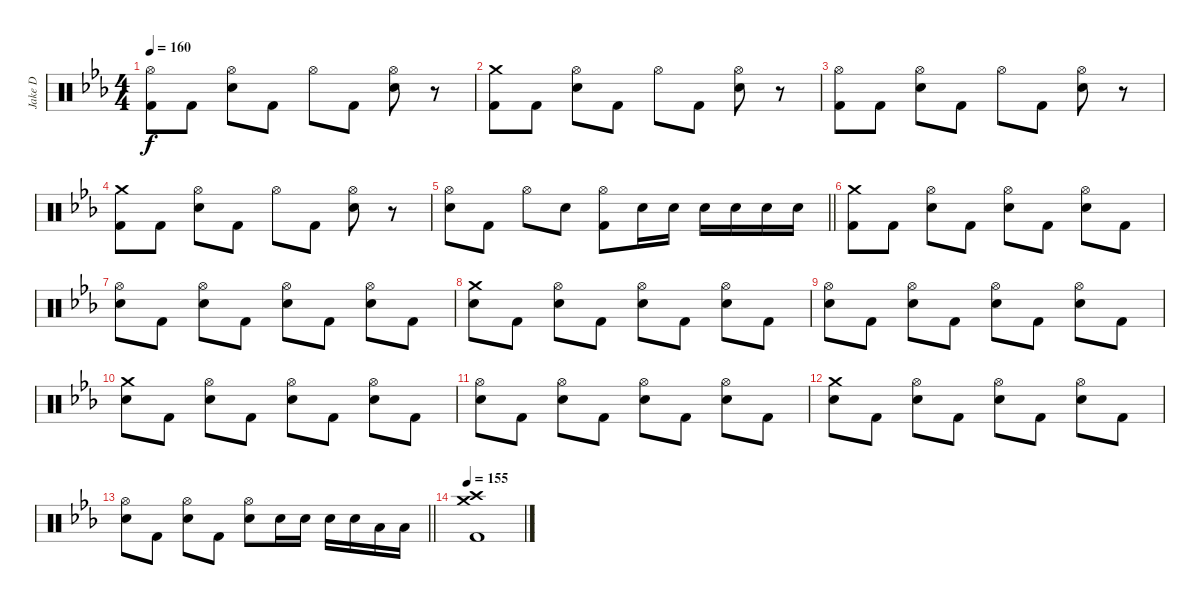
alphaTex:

\track ("Jake D" "Jake D") {instrument percussion}
\staff {score}
\articulation defaults
\ts (4 4)
\tempo 160
\clef neutral
\ks cminor
("Hi-Hat (open)" "Kick (hit) 2").8{dy f} "Kick (hit) 2".8 ("Hi-Hat (open)" "Electric Snare (hit)").8 "Kick (hit) 2".8 "Hi-Hat (open)".8 "Kick (hit) 2".8 ("Hi-Hat (open)" "Electric Snare (hit)").8 r.8 |
("Crash medium (hit)" "Kick (hit) 2").8 "Kick (hit) 2".8 ("Hi-Hat (open)" "Electric Snare (hit)").8 "Kick (hit) 2".8 "Hi-Hat (open)".8 "Kick (hit) 2".8 ("Hi-Hat (open)" "Electric Snare (hit)").8 r.8 |
("Hi-Hat (open)" "Kick (hit) 2").8 "Kick (hit) 2".8 ("Hi-Hat (open)" "Electric Snare (hit)").8 "Kick (hit) 2".8 "Hi-Hat (open)".8 "Kick (hit) 2".8 ("Hi-Hat (open)" "Electric Snare (hit)").8 r.8 |
("Crash medium (hit)" "Kick (hit) 2").8 "Kick (hit) 2".8 ("Hi-Hat (open)" "Electric Snare (hit)").8 "Kick (hit) 2".8 "Hi-Hat (open)".8 "Kick (hit) 2".8 ("Hi-Hat (open)" "Electric Snare (hit)").8 r.8 |
\barLineRight lightlight
("Hi-Hat (open)" "Electric Snare (hit)").8 "Kick (hit) 2".8 "Hi-Hat (open)".8 "Electric Snare (hit)".8 ("Hi-Hat (open)" "Kick (hit) 2").8 "Electric Snare (hit)".16 "Electric Snare (hit)".16 "Electric Snare (hit)".16 "Electric Snare (hit)".16 "Electric Snare (hit)".16 "Electric Snare (hit)".16 |
("Crash medium (hit)" "Kick (hit) 2").8 "Kick (hit) 2".8 ("Hi-Hat (open)" "Electric Snare (hit)").8 "Kick (hit) 2".8 ("Hi-Hat (open)" "Electric Snare (hit)").8 "Kick (hit) 2".8 ("Hi-Hat (open)" "Electric Snare (hit)").8 "Kick (hit) 2".8 |
("Hi-Hat (open)" "Electric Snare (hit)").8 "Kick (hit) 2".8 ("Hi-Hat (open)" "Electric Snare (hit)").8 "Kick (hit) 2".8 ("Hi-Hat (open)" "Electric Snare (hit)").8 "Kick (hit) 2".8 ("Hi-Hat (open)" "Electric Snare (hit)").8 "Kick (hit) 2".8 |
("Crash medium (hit)" "Electric Snare (hit)").8 "Kick (hit) 2".8 ("Hi-Hat (open)" "Electric Snare (hit)").8 "Kick (hit) 2".8 ("Hi-Hat (open)" "Electric Snare (hit)").8 "Kick (hit) 2".8 ("Hi-Hat (open)" "Electric Snare (hit)").8 "Kick (hit) 2".8 |
("Hi-Hat (open)" "Electric Snare (hit)").8 "Kick (hit) 2".8 ("Hi-Hat (open)" "Electric Snare (hit)").8 "Kick (hit) 2".8 ("Hi-Hat (open)" "Electric Snare (hit)").8 "Kick (hit) 2".8 ("Hi-Hat (open)" "Electric Snare (hit)").8 "Kick (hit) 2".8 |
("Crash medium (hit)" "Electric Snare (hit)").8 "Kick (hit) 2".8 ("Hi-Hat (open)" "Electric Snare (hit)").8 "Kick (hit) 2".8 ("Hi-Hat (open)" "Electric Snare (hit)").8 "Kick (hit) 2".8 ("Hi-Hat (open)" "Electric Snare (hit)").8 "Kick (hit) 2".8 |
("Hi-Hat (open)" "Electric Snare (hit)").8 "Kick (hit) 2".8 ("Hi-Hat (open)" "Electric Snare (hit)").8 "Kick (hit) 2".8 ("Hi-Hat (open)" "Electric Snare (hit)").8 "Kick (hit) 2".8 ("Hi-Hat (open)" "Electric Snare (hit)").8 "Kick (hit) 2".8 |
("Crash medium (hit)" "Electric Snare (hit)").8 "Kick (hit) 2".8 ("Hi-Hat (open)" "Electric Snare (hit)").8 "Kick (hit) 2".8 ("Hi-Hat (open)" "Electric Snare (hit)").8 "Kick (hit) 2".8 ("Hi-Hat (open)" "Electric Snare (hit)").8 "Kick (hit) 2".8 |
\barLineRight lightlight
("Hi-Hat (open)" "Electric Snare (hit)").8 "Kick (hit) 2".8 ("Hi-Hat (open)" "Electric Snare (hit)").8 "Kick (hit) 2".8 ("Hi-Hat (open)" "Electric Snare (hit)").8 "Electric Snare (hit)".16 "Electric Snare (hit)".16 "Electric Snare (hit)".16 "Electric Snare (hit)".16 "Low Tom (hit)".16 "Low Tom (hit)".16 |
\tempo 155
("Crash high (hit)" "Crash medium (hit)" "Kick (hit) 2").1
